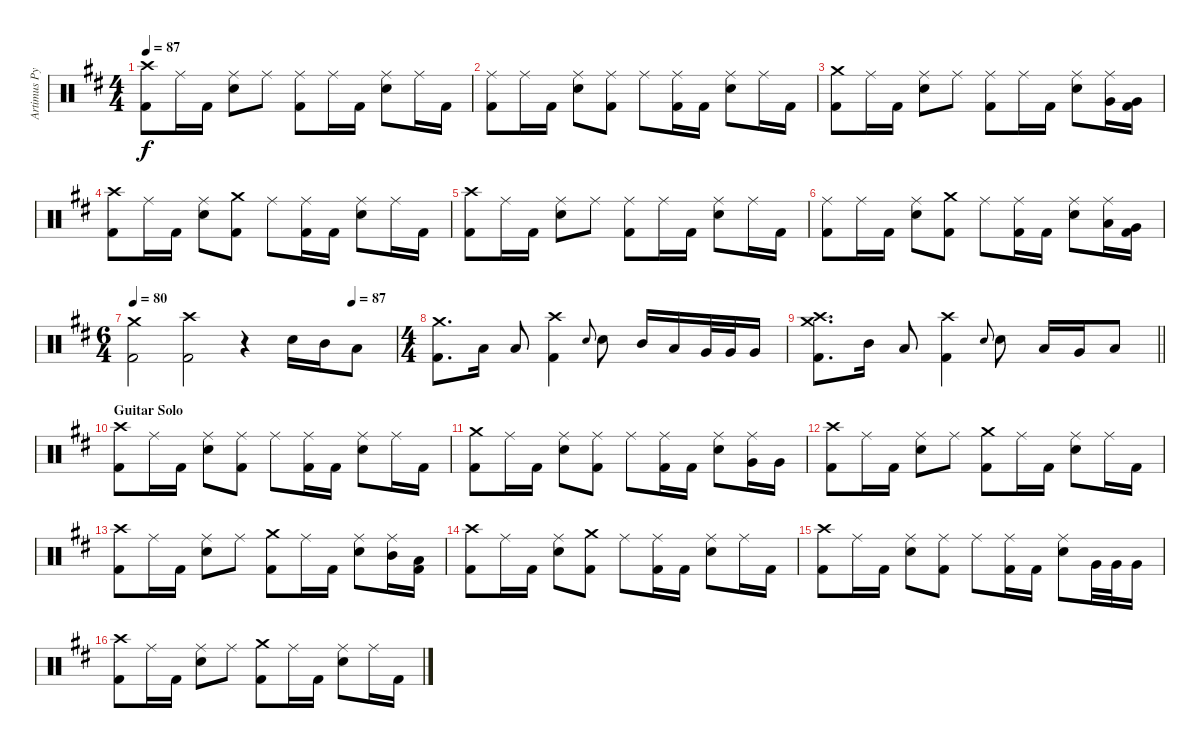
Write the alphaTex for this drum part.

\track ("Artimus Pyle - Drums" "Artimus Py") {instrument percussion}
\staff {score}
\articulation defaults
\ts (4 4)
\tempo 87
\clef neutral
\ks d
("Crash high (hit)" "Kick (hit) 2").8{dy f} "Ride (middle)".16 "Kick (hit) 2".16 ("Ride (middle)" "Snare (hit) 2").8 "Ride (middle)".8 ("Ride (middle)" "Kick (hit) 2").8 "Ride (middle)".16 "Kick (hit) 2".16 ("Ride (middle)" "Snare (hit) 2").8 "Ride (middle)".16 "Kick (hit) 2".16 |
("Ride (middle)" "Kick (hit) 2").8 "Ride (middle)".16 "Kick (hit) 2".16 ("Ride (middle)" "Snare (hit) 2").8 ("Ride (middle)" "Kick (hit) 2").8 "Ride (middle)".8 ("Ride (middle)" "Kick (hit) 2").16 "Kick (hit) 2".16 ("Ride (middle)" "Snare (hit) 2").8 "Ride (middle)".16 "Kick (hit) 2".16 |
("Crash medium (hit)" "Kick (hit) 2").8 "Ride (middle)".16 "Kick (hit) 2".16 ("Ride (middle)" "Snare (hit) 2").8 "Ride (middle)".8 ("Ride (middle)" "Kick (hit) 2").8 "Ride (middle)".16 "Kick (hit) 2".16 ("Ride (middle)" "Snare (hit) 2").8 ("Ride (middle)" "Very Low Tom (hit)").16 ("Very Low Tom (hit)" "Kick (hit) 2").16 |
("Crash high (hit)" "Kick (hit) 2").8 "Ride (middle)".16 "Kick (hit) 2".16 ("Ride (middle)" "Snare (hit) 2").8 ("Crash medium (hit)" "Kick (hit) 2").8 "Ride (middle)".8 ("Ride (middle)" "Kick (hit) 2").16 "Kick (hit) 2".16 ("Ride (middle)" "Snare (hit) 2").8 "Ride (middle)".16 "Kick (hit) 2".16 |
("Crash high (hit)" "Kick (hit) 2").8 "Ride (middle)".16 "Kick (hit) 2".16 ("Ride (middle)" "Snare (hit) 2").8 "Ride (middle)".8 ("Ride (middle)" "Kick (hit) 2").8 "Ride (middle)".16 "Kick (hit) 2".16 ("Ride (middle)" "Snare (hit) 2").8 "Ride (middle)".16 "Kick (hit) 2".16 |
("Ride (middle)" "Kick (hit) 2").8 "Ride (middle)".16 "Kick (hit) 2".16 ("Ride (middle)" "Snare (hit) 2").8 ("Crash medium (hit)" "Kick (hit) 2").8 "Ride (middle)".8 ("Ride (middle)" "Kick (hit) 2").16 "Kick (hit) 2".16 ("Ride (middle)" "Snare (hit) 2").8 ("Ride (middle)" "Low Tom (hit)").16 ("Very Low Tom (hit)" "Kick (hit) 2").16 |
\ts (6 4)
\tempo 80
\tempo (87 0.8333333333333334)
("Crash medium (hit)" "Kick (hit) 2").2 ("Crash high (hit)" "Kick (hit) 2").2 r.4 "Snare (hit) 2".16 "Mid Tom (hit)".16 "Low Floor Tom (hit)".8 |
\ts (4 4)
("Crash medium (hit)" "Kick (hit) 2").8{d} "Low Floor Tom (hit)".16 "Low Floor Tom (hit)".8 ("Crash high (hit)" "Kick (hit) 2").4 "Snare (hit) 2".8{gr onbeat} "Snare (hit) 2".8 "Mid Tom (hit)".16 "Low Tom (hit)".16 "Very Low Tom (hit)".32 "Very Low Tom (hit)".32 "Very Low Tom (hit)".16 |
\barLineRight lightlight
("Crash medium (hit)" "Crash high (hit)" "Kick (hit) 2").8{d} "Mid Tom (hit)".16 "Low Floor Tom (hit)".8 ("Crash high (hit)" "Kick (hit) 2").4 "Snare (hit) 2".8{gr onbeat} "Snare (hit) 2".8 "Low Tom (hit)".16 "Very Low Tom (hit)".16 "Low Floor Tom (hit)".8 |
\section ("" "Guitar Solo")
("Crash high (hit)" "Kick (hit) 2").8 "Ride (middle)".16 "Kick (hit) 2".16 ("Ride (middle)" "Snare (hit) 2").8 ("Ride (middle)" "Kick (hit) 2").8 "Ride (middle)".8 ("Ride (middle)" "Kick (hit) 2").16 "Kick (hit) 2".16 ("Ride (middle)" "Snare (hit) 2").8 "Ride (middle)".16 "Kick (hit) 2".16 |
("Crash medium (hit)" "Kick (hit) 2").8 "Ride (middle)".16 "Kick (hit) 2".16 ("Ride (middle)" "Snare (hit) 2").8 ("Ride (middle)" "Kick (hit) 2").8 "Ride (middle)".8 ("Ride (middle)" "Kick (hit) 2").16 "Kick (hit) 2".16 ("Ride (middle)" "Snare (hit) 2").8 ("Ride (middle)" "Very Low Tom (hit)").16 "Very Low Tom (hit)".16 |
("Crash high (hit)" "Kick (hit) 2").8 "Ride (middle)".16 "Kick (hit) 2".16 ("Ride (middle)" "Snare (hit) 2").8 "Ride (middle)".8 ("Crash medium (hit)" "Kick (hit) 2").8 "Ride (middle)".16 "Kick (hit) 2".16 ("Ride (middle)" "Snare (hit) 2").8 "Ride (middle)".16 "Kick (hit) 2".16 |
("Crash high (hit)" "Kick (hit) 2").8 "Ride (middle)".16 "Kick (hit) 2".16 ("Ride (middle)" "Snare (hit) 2").8 "Ride (middle)".8 ("Crash medium (hit)" "Kick (hit) 2").8 "Ride (middle)".16 "Kick (hit) 2".16 ("Ride (middle)" "Snare (hit) 2").8 ("Ride (middle)" "Mid Tom (hit)").16 ("Low Floor Tom (hit)" "Kick (hit) 2").16 |
("Crash high (hit)" "Kick (hit) 2").8 "Ride (middle)".16 "Kick (hit) 2".16 ("Ride (middle)" "Snare (hit) 2").8 ("Crash medium (hit)" "Kick (hit) 2").8 "Ride (middle)".8 ("Ride (middle)" "Kick (hit) 2").16 "Kick (hit) 2".16 ("Ride (middle)" "Snare (hit) 2").8 "Ride (middle)".16 "Kick (hit) 2".16 |
("Crash high (hit)" "Kick (hit) 2").8 "Ride (middle)".16 "Kick (hit) 2".16 ("Ride (middle)" "Snare (hit) 2").8 ("Ride (middle)" "Kick (hit) 2").8 "Ride (middle)".8 ("Ride (middle)" "Kick (hit) 2").16 "Kick (hit) 2".16 ("Ride (middle)" "Snare (hit) 2").8 "Very Low Tom (hit)".32 "Very Low Tom (hit)".32 "Very Low Tom (hit)".16 |
("Crash high (hit)" "Kick (hit) 2").8 "Ride (middle)".16 "Kick (hit) 2".16 ("Ride (middle)" "Snare (hit) 2").8 "Ride (middle)".8 ("Crash medium (hit)" "Kick (hit) 2").8 "Ride (middle)".16 "Kick (hit) 2".16 ("Ride (middle)" "Snare (hit) 2").8 "Ride (middle)".16 "Kick (hit) 2".16
